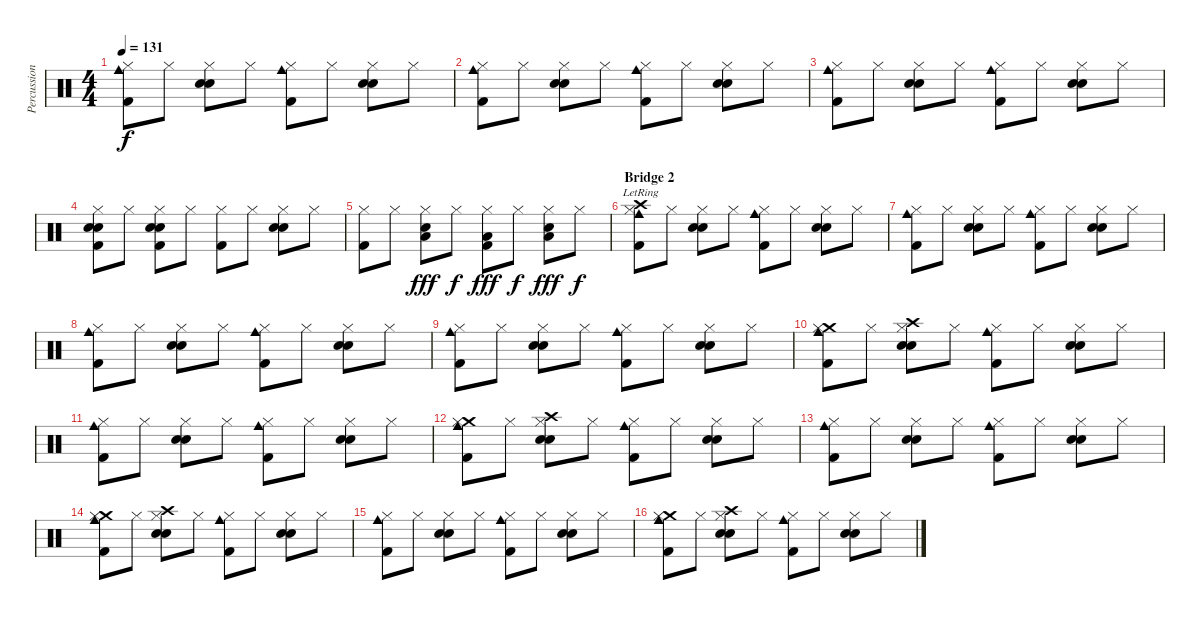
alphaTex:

\track ("Percussion" "Percussion") {instrument percussion}
\staff {score}
\articulation defaults
\ts (4 4)
\tempo 131
\clef neutral
\ks c
("Hi-Hat (closed)" "Cowbell medium (hit)" "Kick (hit) 2").8{dy f} "Hi-Hat (closed)".8 ("Hand Clap (hit)" "Hi-Hat (closed)" "Electric Snare (hit)").8 "Hi-Hat (closed)".8 ("Hi-Hat (closed)" "Cowbell medium (hit)" "Kick (hit) 2").8 "Hi-Hat (closed)".8 ("Hand Clap (hit)" "Hi-Hat (closed)" "Electric Snare (hit)").8 "Hi-Hat (closed)".8 |
("Hi-Hat (closed)" "Cowbell medium (hit)" "Kick (hit) 2").8 "Hi-Hat (closed)".8 ("Hand Clap (hit)" "Hi-Hat (closed)" "Electric Snare (hit)").8 "Hi-Hat (closed)".8 ("Hi-Hat (closed)" "Cowbell medium (hit)" "Kick (hit) 2").8 "Hi-Hat (closed)".8 ("Hand Clap (hit)" "Hi-Hat (closed)" "Electric Snare (hit)").8 "Hi-Hat (closed)".8 |
("Hi-Hat (closed)" "Cowbell medium (hit)" "Kick (hit) 2").8 "Hi-Hat (closed)".8 ("Hand Clap (hit)" "Hi-Hat (closed)" "Electric Snare (hit)").8 "Hi-Hat (closed)".8 ("Hi-Hat (closed)" "Cowbell medium (hit)" "Kick (hit) 2").8 "Hi-Hat (closed)".8 ("Hand Clap (hit)" "Hi-Hat (closed)" "Electric Snare (hit)").8 "Hi-Hat (closed)".8 |
("Hand Clap (hit)" "Hi-Hat (closed)" "Electric Snare (hit)" "Kick (hit) 2").8{volume 9} "Hi-Hat (closed)".8{volume 13} ("Hand Clap (hit)" "Hi-Hat (closed)" "Electric Snare (hit)" "Kick (hit) 2").8 "Hi-Hat (closed)".8 ("Hi-Hat (closed)" "Kick (hit) 2").8 "Hi-Hat (closed)".8 ("Hand Clap (hit)" "Hi-Hat (closed)" "Electric Snare (hit)").8 "Hi-Hat (closed)".8 |
("Hi-Hat (closed)" "Kick (hit) 2").8 "Hi-Hat (closed)".8 ("Hand Clap (hit)" "Hi-Hat (closed)" "Low Tom (hit)").8{dy fff} "Hi-Hat (closed)".8{dy f} ("Hi-Hat (closed)" "Low Tom (hit)" "Kick (hit) 2").8{dy fff} "Hi-Hat (closed)".8{dy f} ("Hand Clap (hit)" "Hi-Hat (closed)" "Low Tom (hit)").8{dy fff} "Hi-Hat (closed)".8{dy f} |
\section ("" "Bridge 2")
("Crash high (hit)"{lr} "Hi-Hat (closed)" "Cowbell medium (hit)" "Kick (hit) 2").8{volume 13} "Hi-Hat (closed)".8 ("Hand Clap (hit)" "Hi-Hat (closed)" "Electric Snare (hit)").8 "Hi-Hat (closed)".8 ("Hi-Hat (closed)" "Cowbell medium (hit)" "Kick (hit) 2").8 "Hi-Hat (closed)".8 ("Hand Clap (hit)" "Hi-Hat (closed)" "Electric Snare (hit)").8 "Hi-Hat (closed)".8 |
("Hi-Hat (closed)" "Cowbell medium (hit)" "Kick (hit) 2").8 "Hi-Hat (closed)".8 ("Hand Clap (hit)" "Hi-Hat (closed)" "Electric Snare (hit)").8 "Hi-Hat (closed)".8 ("Hi-Hat (closed)" "Cowbell medium (hit)" "Kick (hit) 2").8 "Hi-Hat (closed)".8 ("Hand Clap (hit)" "Hi-Hat (closed)" "Electric Snare (hit)").8 "Hi-Hat (closed)".8 |
("Hi-Hat (closed)" "Cowbell medium (hit)" "Kick (hit) 2").8 "Hi-Hat (closed)".8 ("Hand Clap (hit)" "Hi-Hat (closed)" "Electric Snare (hit)").8 "Hi-Hat (closed)".8 ("Hi-Hat (closed)" "Cowbell medium (hit)" "Kick (hit) 2").8 "Hi-Hat (closed)".8 ("Hand Clap (hit)" "Hi-Hat (closed)" "Electric Snare (hit)").8 "Hi-Hat (closed)".8 |
("Hi-Hat (closed)" "Cowbell medium (hit)" "Kick (hit) 2").8 "Hi-Hat (closed)".8 ("Hand Clap (hit)" "Hi-Hat (closed)" "Electric Snare (hit)").8 "Hi-Hat (closed)".8 ("Hi-Hat (closed)" "Cowbell medium (hit)" "Kick (hit) 2").8 "Hi-Hat (closed)".8 ("Hand Clap (hit)" "Hi-Hat (closed)" "Electric Snare (hit)").8 "Hi-Hat (closed)".8 |
("Crash medium (hit)" "Hi-Hat (closed)" "Cowbell medium (hit)" "Kick (hit) 2").8 "Hi-Hat (closed)".8 ("Crash high (hit)" "Hi-Hat (closed)" "Electric Snare (hit)" "Hand Clap (hit)").8 "Hi-Hat (closed)".8 ("Hi-Hat (closed)" "Cowbell medium (hit)" "Kick (hit) 2").8 "Hi-Hat (closed)".8 ("Hi-Hat (closed)" "Electric Snare (hit)" "Hand Clap (hit)").8 "Hi-Hat (closed)".8 |
("Hi-Hat (closed)" "Cowbell medium (hit)" "Kick (hit) 2").8 "Hi-Hat (closed)".8 ("Hand Clap (hit)" "Hi-Hat (closed)" "Electric Snare (hit)").8 "Hi-Hat (closed)".8 ("Hi-Hat (closed)" "Cowbell medium (hit)" "Kick (hit) 2").8 "Hi-Hat (closed)".8 ("Hand Clap (hit)" "Hi-Hat (closed)" "Electric Snare (hit)").8 "Hi-Hat (closed)".8 |
("Crash medium (hit)" "Hi-Hat (closed)" "Cowbell medium (hit)" "Kick (hit) 2").8 "Hi-Hat (closed)".8 ("Crash high (hit)" "Hi-Hat (closed)" "Electric Snare (hit)" "Hand Clap (hit)").8 "Hi-Hat (closed)".8 ("Hi-Hat (closed)" "Cowbell medium (hit)" "Kick (hit) 2").8 "Hi-Hat (closed)".8 ("Hi-Hat (closed)" "Electric Snare (hit)" "Hand Clap (hit)").8 "Hi-Hat (closed)".8 |
("Hi-Hat (closed)" "Cowbell medium (hit)" "Kick (hit) 2").8 "Hi-Hat (closed)".8 ("Hand Clap (hit)" "Hi-Hat (closed)" "Electric Snare (hit)").8 "Hi-Hat (closed)".8 ("Hi-Hat (closed)" "Cowbell medium (hit)" "Kick (hit) 2").8 "Hi-Hat (closed)".8 ("Hand Clap (hit)" "Hi-Hat (closed)" "Electric Snare (hit)").8 "Hi-Hat (closed)".8 |
("Crash medium (hit)" "Hi-Hat (closed)" "Cowbell medium (hit)" "Kick (hit) 2").8 "Hi-Hat (closed)".8 ("Crash high (hit)" "Hi-Hat (closed)" "Electric Snare (hit)" "Hand Clap (hit)").8 "Hi-Hat (closed)".8 ("Hi-Hat (closed)" "Cowbell medium (hit)" "Kick (hit) 2").8 "Hi-Hat (closed)".8 ("Hi-Hat (closed)" "Electric Snare (hit)" "Hand Clap (hit)").8 "Hi-Hat (closed)".8 |
("Hi-Hat (closed)" "Cowbell medium (hit)" "Kick (hit) 2").8 "Hi-Hat (closed)".8 ("Hand Clap (hit)" "Hi-Hat (closed)" "Electric Snare (hit)").8 "Hi-Hat (closed)".8 ("Hi-Hat (closed)" "Cowbell medium (hit)" "Kick (hit) 2").8 "Hi-Hat (closed)".8 ("Hand Clap (hit)" "Hi-Hat (closed)" "Electric Snare (hit)").8 "Hi-Hat (closed)".8 |
("Crash medium (hit)" "Hi-Hat (closed)" "Cowbell medium (hit)" "Kick (hit) 2").8 "Hi-Hat (closed)".8 ("Crash high (hit)" "Hi-Hat (closed)" "Electric Snare (hit)" "Hand Clap (hit)").8 "Hi-Hat (closed)".8 ("Hi-Hat (closed)" "Cowbell medium (hit)" "Kick (hit) 2").8 "Hi-Hat (closed)".8 ("Hi-Hat (closed)" "Electric Snare (hit)" "Hand Clap (hit)").8 "Hi-Hat (closed)".8
